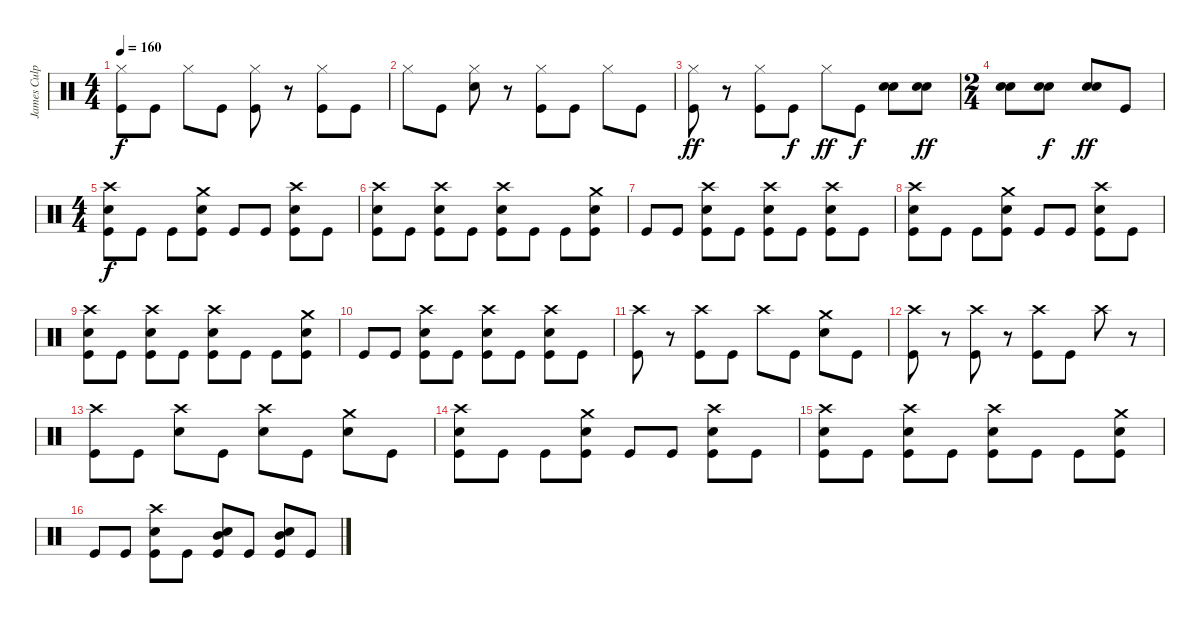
\track ("James Culpepper - drums" "James Culp") {instrument percussion}
\staff {score}
\articulation defaults
\ts (4 4)
\tempo 160
\clef neutral
\ks c
("Hi-Hat (closed)" "Kick (hit)").8{dy f} "Kick (hit)".8 "Hi-Hat (closed)".8 "Kick (hit)".8 ("Hi-Hat (closed)" "Kick (hit)").8 r.8 ("Hi-Hat (closed)" "Kick (hit)").8 "Kick (hit)".8 |
"Hi-Hat (closed)".8 "Kick (hit)".8 ("Hi-Hat (closed)" "Snare (hit) 2").8 r.8 ("Hi-Hat (closed)" "Kick (hit)").8 "Kick (hit)".8 "Hi-Hat (closed)".8 "Kick (hit)".8 |
("Hi-Hat (closed)" "Kick (hit)").8{dy ff} r.8 ("Hi-Hat (closed)" "Kick (hit)").8 "Kick (hit)".8{dy f} "Hi-Hat (closed)".8{dy ff} "Kick (hit)".8{dy f} ("Snare (hit) 2" "Snare (hit) 2").8 ("Snare (hit) 2" "Snare (hit) 2").8{dy ff} |
\ts (2 4)
("Snare (hit) 2" "Snare (hit) 2").8 ("Snare (hit) 2" "Snare (hit) 2").8{dy f} ("Snare (hit) 2" "Snare (hit) 2").8{dy ff} "Kick (hit)".8 |
\ts (4 4)
("Crash high (hit)" "Snare (hit) 2" "Kick (hit)").8{dy f} "Kick (hit)".8 "Kick (hit)".8 ("Crash medium (hit)" "Snare (hit) 2" "Kick (hit)").8 "Kick (hit)".8 "Kick (hit)".8 ("Crash high (hit)" "Snare (hit) 2" "Kick (hit)").8 "Kick (hit)".8 |
("Crash high (hit)" "Snare (hit) 2" "Kick (hit)").8 "Kick (hit)".8 ("Crash high (hit)" "Snare (hit) 2" "Kick (hit)").8 "Kick (hit)".8 ("Crash high (hit)" "Snare (hit) 2" "Kick (hit)").8 "Kick (hit)".8 "Kick (hit)".8 ("Crash medium (hit)" "Snare (hit) 2" "Kick (hit)").8 |
"Kick (hit)".8 "Kick (hit)".8 ("Crash high (hit)" "Snare (hit) 2" "Kick (hit)").8 "Kick (hit)".8 ("Crash high (hit)" "Snare (hit) 2" "Kick (hit)").8 "Kick (hit)".8 ("Crash high (hit)" "Snare (hit) 2" "Kick (hit)").8 "Kick (hit)".8 |
("Crash high (hit)" "Snare (hit) 2" "Kick (hit)").8 "Kick (hit)".8 "Kick (hit)".8 ("Crash medium (hit)" "Snare (hit) 2" "Kick (hit)").8 "Kick (hit)".8 "Kick (hit)".8 ("Crash high (hit)" "Snare (hit) 2" "Kick (hit)").8 "Kick (hit)".8 |
("Crash high (hit)" "Snare (hit) 2" "Kick (hit)").8 "Kick (hit)".8 ("Crash high (hit)" "Snare (hit) 2" "Kick (hit)").8 "Kick (hit)".8 ("Crash high (hit)" "Snare (hit) 2" "Kick (hit)").8 "Kick (hit)".8 "Kick (hit)".8 ("Crash medium (hit)" "Snare (hit) 2" "Kick (hit)").8 |
"Kick (hit)".8 "Kick (hit)".8 ("Crash high (hit)" "Snare (hit) 2" "Kick (hit)").8 "Kick (hit)".8 ("Crash high (hit)" "Snare (hit) 2" "Kick (hit)").8 "Kick (hit)".8 ("Crash high (hit)" "Snare (hit) 2" "Kick (hit)").8 "Kick (hit)".8 |
("Crash high (hit)" "Kick (hit)").8 r.8 ("Crash high (hit)" "Kick (hit)").8 "Kick (hit)".8 "Crash high (hit)".8 "Kick (hit)".8 ("Crash medium (hit)" "Snare (hit) 2").8 "Kick (hit)".8 |
("Crash high (hit)" "Kick (hit)").8 r.8 ("Crash high (hit)" "Kick (hit)").8 r.8 ("Crash high (hit)" "Kick (hit)").8 "Kick (hit)".8 "Crash high (hit)".8 r.8 |
("Crash high (hit)" "Kick (hit)").8 "Kick (hit)".8 ("Crash high (hit)" "Snare (hit) 2").8 "Kick (hit)".8 ("Crash high (hit)" "Snare (hit) 2").8 "Kick (hit)".8 ("Crash medium (hit)" "Snare (hit) 2").8 "Kick (hit)".8 |
("Crash high (hit)" "Snare (hit) 2" "Kick (hit)").8 "Kick (hit)".8 "Kick (hit)".8 ("Crash medium (hit)" "Snare (hit) 2" "Kick (hit)").8 "Kick (hit)".8 "Kick (hit)".8 ("Crash high (hit)" "Snare (hit) 2" "Kick (hit)").8 "Kick (hit)".8 |
("Crash high (hit)" "Snare (hit) 2" "Kick (hit)").8 "Kick (hit)".8 ("Crash high (hit)" "Snare (hit) 2" "Kick (hit)").8 "Kick (hit)".8 ("Crash high (hit)" "Snare (hit) 2" "Kick (hit)").8 "Kick (hit)".8 "Kick (hit)".8 ("Crash medium (hit)" "Snare (hit) 2" "Kick (hit)").8 |
"Kick (hit)".8 "Kick (hit)".8 ("Crash high (hit)" "Snare (hit) 2" "Kick (hit)").8 "Kick (hit)".8 ("Mid Tom (hit)" "Snare (hit) 2" "Kick (hit)").8 "Kick (hit)".8 ("Mid Tom (hit)" "Snare (hit) 2" "Kick (hit)").8 "Kick (hit)".8
